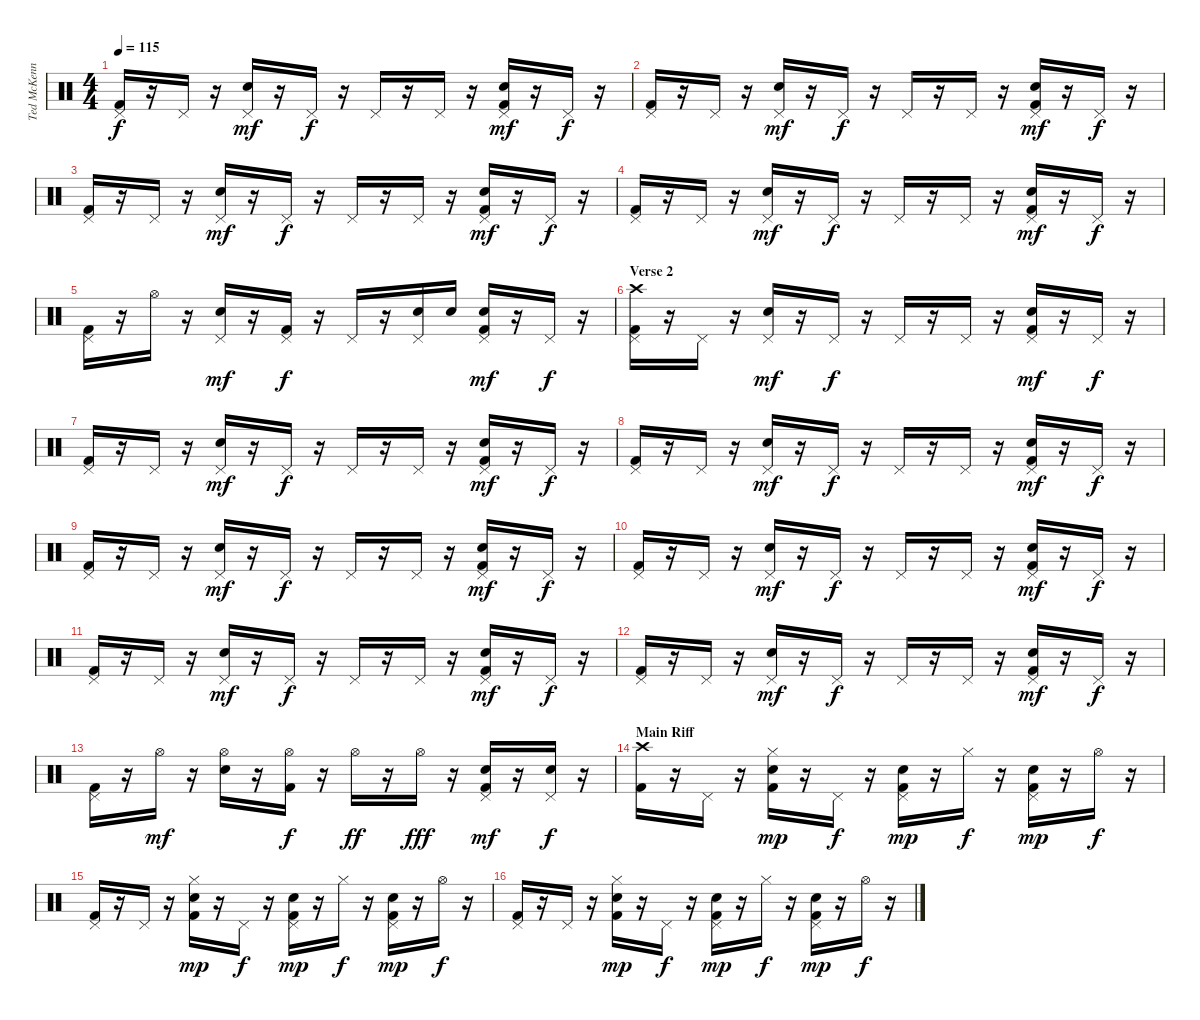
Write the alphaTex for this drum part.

\track ("Ted McKenna" "Ted McKenn") {instrument percussion}
\staff {score}
\articulation defaults
\ts (4 4)
\tempo 115
\clef neutral
\ks c
("Pedal Hi-Hat (hit)" "Kick (hit) 2").16{dy f} r.16 "Pedal Hi-Hat (hit)".16 r.16 ("Electric Snare (hit)" "Pedal Hi-Hat (hit)").16{dy mf} r.16 "Pedal Hi-Hat (hit)".16{dy f} r.16 "Pedal Hi-Hat (hit)".16 r.16 "Pedal Hi-Hat (hit)".16 r.16 ("Electric Snare (hit)" "Pedal Hi-Hat (hit)" "Kick (hit) 2").16{dy mf} r.16 "Pedal Hi-Hat (hit)".16{dy f} r.16 |
("Pedal Hi-Hat (hit)" "Kick (hit) 2").16 r.16 "Pedal Hi-Hat (hit)".16 r.16 ("Electric Snare (hit)" "Pedal Hi-Hat (hit)").16{dy mf} r.16 "Pedal Hi-Hat (hit)".16{dy f} r.16 "Pedal Hi-Hat (hit)".16 r.16 "Pedal Hi-Hat (hit)".16 r.16 ("Electric Snare (hit)" "Pedal Hi-Hat (hit)" "Kick (hit) 2").16{dy mf} r.16 "Pedal Hi-Hat (hit)".16{dy f} r.16 |
("Pedal Hi-Hat (hit)" "Kick (hit) 2").16 r.16 "Pedal Hi-Hat (hit)".16 r.16 ("Electric Snare (hit)" "Pedal Hi-Hat (hit)").16{dy mf} r.16 "Pedal Hi-Hat (hit)".16{dy f} r.16 "Pedal Hi-Hat (hit)".16 r.16 "Pedal Hi-Hat (hit)".16 r.16 ("Electric Snare (hit)" "Pedal Hi-Hat (hit)" "Kick (hit) 2").16{dy mf} r.16 "Pedal Hi-Hat (hit)".16{dy f} r.16 |
("Pedal Hi-Hat (hit)" "Kick (hit) 2").16 r.16 "Pedal Hi-Hat (hit)".16 r.16 ("Electric Snare (hit)" "Pedal Hi-Hat (hit)").16{dy mf} r.16 "Pedal Hi-Hat (hit)".16{dy f} r.16 "Pedal Hi-Hat (hit)".16 r.16 "Pedal Hi-Hat (hit)".16 r.16 ("Electric Snare (hit)" "Pedal Hi-Hat (hit)" "Kick (hit) 2").16{dy mf} r.16 "Pedal Hi-Hat (hit)".16{dy f} r.16 |
("Pedal Hi-Hat (hit)" "Kick (hit) 2").16 r.16 "Hi-Hat (open)".16 r.16 ("Electric Snare (hit)" "Pedal Hi-Hat (hit)").16{dy mf} r.16 ("Pedal Hi-Hat (hit)" "Kick (hit) 2").16{dy f} r.16 "Pedal Hi-Hat (hit)".16 r.16 ("Electric Snare (hit)" "Pedal Hi-Hat (hit)").16 "Electric Snare (hit)".16 ("Electric Snare (hit)" "Pedal Hi-Hat (hit)" "Kick (hit) 2").16{dy mf} r.16 "Pedal Hi-Hat (hit)".16{dy f} r.16 |
\section ("" "Verse 2")
("Crash high (hit)" "Pedal Hi-Hat (hit)" "Kick (hit) 2").16 r.16 "Pedal Hi-Hat (hit)".16 r.16 ("Electric Snare (hit)" "Pedal Hi-Hat (hit)").16{dy mf} r.16 "Pedal Hi-Hat (hit)".16{dy f} r.16 "Pedal Hi-Hat (hit)".16 r.16 "Pedal Hi-Hat (hit)".16 r.16 ("Electric Snare (hit)" "Pedal Hi-Hat (hit)" "Kick (hit) 2").16{dy mf} r.16 "Pedal Hi-Hat (hit)".16{dy f} r.16 |
("Pedal Hi-Hat (hit)" "Kick (hit) 2").16 r.16 "Pedal Hi-Hat (hit)".16 r.16 ("Electric Snare (hit)" "Pedal Hi-Hat (hit)").16{dy mf} r.16 "Pedal Hi-Hat (hit)".16{dy f} r.16 "Pedal Hi-Hat (hit)".16 r.16 "Pedal Hi-Hat (hit)".16 r.16 ("Electric Snare (hit)" "Pedal Hi-Hat (hit)" "Kick (hit) 2").16{dy mf} r.16 "Pedal Hi-Hat (hit)".16{dy f} r.16 |
("Pedal Hi-Hat (hit)" "Kick (hit) 2").16 r.16 "Pedal Hi-Hat (hit)".16 r.16 ("Electric Snare (hit)" "Pedal Hi-Hat (hit)").16{dy mf} r.16 "Pedal Hi-Hat (hit)".16{dy f} r.16 "Pedal Hi-Hat (hit)".16 r.16 "Pedal Hi-Hat (hit)".16 r.16 ("Electric Snare (hit)" "Pedal Hi-Hat (hit)" "Kick (hit) 2").16{dy mf} r.16 "Pedal Hi-Hat (hit)".16{dy f} r.16 |
("Pedal Hi-Hat (hit)" "Kick (hit) 2").16 r.16 "Pedal Hi-Hat (hit)".16 r.16 ("Electric Snare (hit)" "Pedal Hi-Hat (hit)").16{dy mf} r.16 "Pedal Hi-Hat (hit)".16{dy f} r.16 "Pedal Hi-Hat (hit)".16 r.16 "Pedal Hi-Hat (hit)".16 r.16 ("Electric Snare (hit)" "Pedal Hi-Hat (hit)" "Kick (hit) 2").16{dy mf} r.16 "Pedal Hi-Hat (hit)".16{dy f} r.16 |
("Pedal Hi-Hat (hit)" "Kick (hit) 2").16 r.16 "Pedal Hi-Hat (hit)".16 r.16 ("Electric Snare (hit)" "Pedal Hi-Hat (hit)").16{dy mf} r.16 "Pedal Hi-Hat (hit)".16{dy f} r.16 "Pedal Hi-Hat (hit)".16 r.16 "Pedal Hi-Hat (hit)".16 r.16 ("Electric Snare (hit)" "Pedal Hi-Hat (hit)" "Kick (hit) 2").16{dy mf} r.16 "Pedal Hi-Hat (hit)".16{dy f} r.16 |
("Pedal Hi-Hat (hit)" "Kick (hit) 2").16 r.16 "Pedal Hi-Hat (hit)".16 r.16 ("Electric Snare (hit)" "Pedal Hi-Hat (hit)").16{dy mf} r.16 "Pedal Hi-Hat (hit)".16{dy f} r.16 "Pedal Hi-Hat (hit)".16 r.16 "Pedal Hi-Hat (hit)".16 r.16 ("Electric Snare (hit)" "Pedal Hi-Hat (hit)" "Kick (hit) 2").16{dy mf} r.16 "Pedal Hi-Hat (hit)".16{dy f} r.16 |
("Pedal Hi-Hat (hit)" "Kick (hit) 2").16 r.16 "Pedal Hi-Hat (hit)".16 r.16 ("Electric Snare (hit)" "Pedal Hi-Hat (hit)").16{dy mf} r.16 "Pedal Hi-Hat (hit)".16{dy f} r.16 "Pedal Hi-Hat (hit)".16 r.16 "Pedal Hi-Hat (hit)".16 r.16 ("Electric Snare (hit)" "Pedal Hi-Hat (hit)" "Kick (hit) 2").16{dy mf} r.16 "Pedal Hi-Hat (hit)".16{dy f} r.16 |
("Pedal Hi-Hat (hit)" "Kick (hit) 2").16 r.16 "Hi-Hat (open)".16{dy mf} r.16 ("Electric Snare (hit)" "Hi-Hat (open)").16 r.16 ("Hi-Hat (open)" "Kick (hit) 2").16{dy f} r.16 "Hi-Hat (open)".16{dy ff} r.16 "Hi-Hat (open)".16{dy fff} r.16 ("Electric Snare (hit)" "Pedal Hi-Hat (hit)" "Kick (hit) 2").16{dy mf} r.16 ("Electric Snare (hit)" "Pedal Hi-Hat (hit)").16{dy f} r.16 |
\section ("" "Main Riff")
("Crash high (hit)" "Kick (hit) 2").16 r.16 "Pedal Hi-Hat (hit)".16 r.16 ("Electric Snare (hit)" "Hi-Hat (closed)" "Kick (hit) 2").16{dy mp} r.16 "Pedal Hi-Hat (hit)".16{dy f} r.16 ("Electric Snare (hit)" "Pedal Hi-Hat (hit)" "Kick (hit) 2").16{dy mp} r.16 "Hi-Hat (closed)".16{dy f} r.16 ("Electric Snare (hit)" "Pedal Hi-Hat (hit)" "Kick (hit) 2").16{dy mp} r.16 "Hi-Hat (open)".16{dy f} r.16 |
("Pedal Hi-Hat (hit)" "Kick (hit) 2").16 r.16 "Pedal Hi-Hat (hit)".16 r.16 ("Electric Snare (hit)" "Hi-Hat (closed)" "Kick (hit) 2").16{dy mp} r.16 "Pedal Hi-Hat (hit)".16{dy f} r.16 ("Electric Snare (hit)" "Pedal Hi-Hat (hit)" "Kick (hit) 2").16{dy mp} r.16 "Hi-Hat (closed)".16{dy f} r.16 ("Electric Snare (hit)" "Pedal Hi-Hat (hit)" "Kick (hit) 2").16{dy mp} r.16 "Hi-Hat (open)".16{dy f} r.16 |
("Pedal Hi-Hat (hit)" "Kick (hit) 2").16 r.16 "Pedal Hi-Hat (hit)".16 r.16 ("Electric Snare (hit)" "Hi-Hat (closed)" "Kick (hit) 2").16{dy mp} r.16 "Pedal Hi-Hat (hit)".16{dy f} r.16 ("Electric Snare (hit)" "Pedal Hi-Hat (hit)" "Kick (hit) 2").16{dy mp} r.16 "Hi-Hat (closed)".16{dy f} r.16 ("Electric Snare (hit)" "Pedal Hi-Hat (hit)" "Kick (hit) 2").16{dy mp} r.16 "Hi-Hat (open)".16{dy f} r.16
